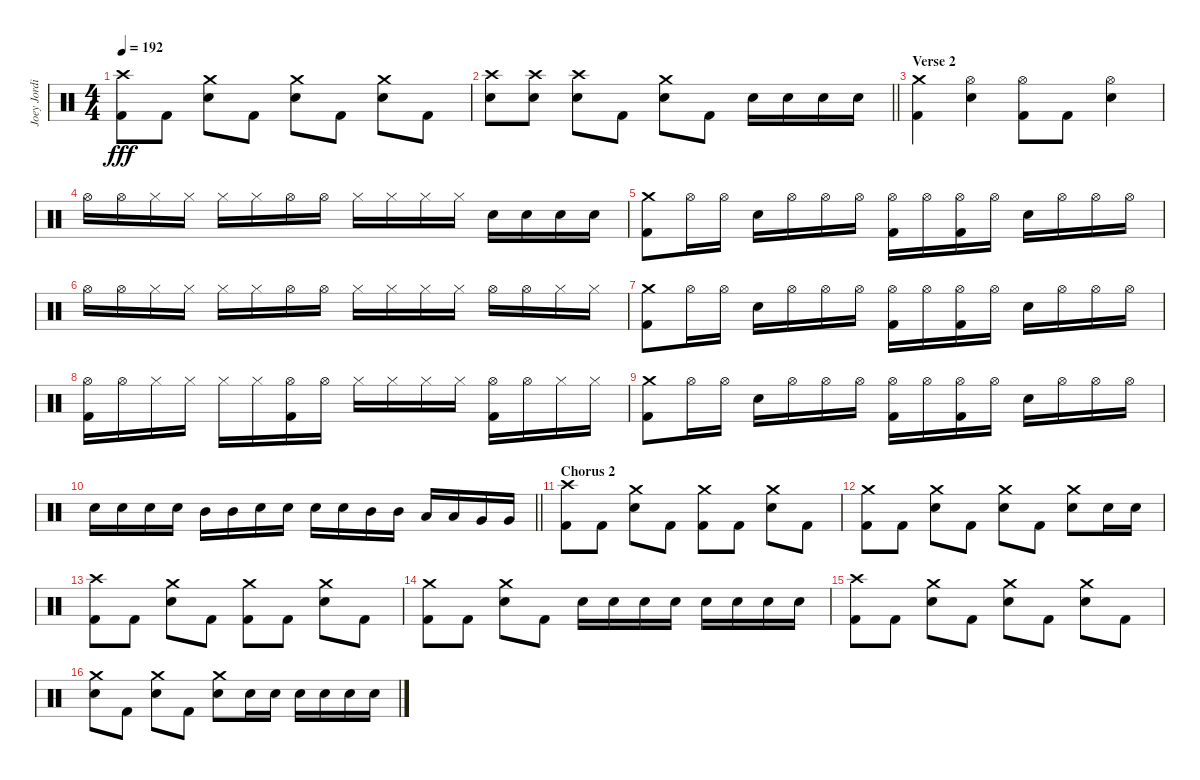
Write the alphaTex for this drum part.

\track ("Joey Jordison" "Joey Jordi") {instrument percussion}
\staff {score}
\articulation defaults
\ts (4 4)
\tempo 192
\clef neutral
\ks c
("Crash high (hit)" "Kick (hit) 2").8{dy fff} "Kick (hit) 2".8 ("Crash medium (hit)" "Electric Snare (hit)").8 "Kick (hit) 2".8 ("Crash medium (hit)" "Electric Snare (hit)").8 "Kick (hit) 2".8 ("Crash medium (hit)" "Electric Snare (hit)").8 "Kick (hit) 2".8 |
\barLineRight lightlight
("Crash high (hit)" "Electric Snare (hit)").8 ("Crash high (hit)" "Electric Snare (hit)").8 ("Crash high (hit)" "Electric Snare (hit)").8 "Kick (hit) 2".8 ("Crash medium (hit)" "Electric Snare (hit)").8 "Kick (hit) 2".8 "Electric Snare (hit)".16 "Electric Snare (hit)".16 "Electric Snare (hit)".16 "Electric Snare (hit)".16 |
\section ("" "Verse 2")
("Crash medium (hit)" "Kick (hit) 2").4 ("Hi-Hat (open)" "Electric Snare (hit)").4 ("Hi-Hat (open)" "Kick (hit) 2").8 "Kick (hit) 2".8 ("Hi-Hat (open)" "Electric Snare (hit)").4 |
"Hi-Hat (open)".16 "Hi-Hat (open)".16 "Hi-Hat (closed)".16 "Hi-Hat (closed)".16 "Hi-Hat (closed)".16 "Hi-Hat (closed)".16 "Hi-Hat (open)".16 "Hi-Hat (open)".16 "Hi-Hat (closed)".16 "Hi-Hat (closed)".16 "Hi-Hat (closed)".16 "Hi-Hat (closed)".16 "Electric Snare (hit)".16 "Electric Snare (hit)".16 "Electric Snare (hit)".16 "Electric Snare (hit)".16 |
("Crash medium (hit)" "Kick (hit) 2").8 "Hi-Hat (open)".16 "Hi-Hat (open)".16 "Electric Snare (hit)".16 "Hi-Hat (open)".16 "Hi-Hat (open)".16 "Hi-Hat (open)".16 ("Hi-Hat (open)" "Kick (hit) 2").16 "Hi-Hat (open)".16 ("Hi-Hat (open)" "Kick (hit) 2").16 "Hi-Hat (open)".16 "Electric Snare (hit)".16 "Hi-Hat (open)".16 "Hi-Hat (open)".16 "Hi-Hat (open)".16 |
"Hi-Hat (open)".16 "Hi-Hat (open)".16 "Hi-Hat (closed)".16 "Hi-Hat (closed)".16 "Hi-Hat (closed)".16 "Hi-Hat (closed)".16 "Hi-Hat (open)".16 "Hi-Hat (open)".16 "Hi-Hat (closed)".16 "Hi-Hat (closed)".16 "Hi-Hat (closed)".16 "Hi-Hat (closed)".16 "Hi-Hat (open)".16 "Hi-Hat (open)".16 "Hi-Hat (closed)".16 "Hi-Hat (closed)".16 |
("Crash medium (hit)" "Kick (hit) 2").8 "Hi-Hat (open)".16 "Hi-Hat (open)".16 "Electric Snare (hit)".16 "Hi-Hat (open)".16 "Hi-Hat (open)".16 "Hi-Hat (open)".16 ("Hi-Hat (open)" "Kick (hit) 2").16 "Hi-Hat (open)".16 ("Hi-Hat (open)" "Kick (hit) 2").16 "Hi-Hat (open)".16 "Electric Snare (hit)".16 "Hi-Hat (open)".16 "Hi-Hat (open)".16 "Hi-Hat (open)".16 |
("Hi-Hat (open)" "Kick (hit) 2").16 "Hi-Hat (open)".16 "Hi-Hat (closed)".16 "Hi-Hat (closed)".16 "Hi-Hat (closed)".16 "Hi-Hat (closed)".16 ("Hi-Hat (open)" "Kick (hit) 2").16 "Hi-Hat (open)".16 "Hi-Hat (closed)".16 "Hi-Hat (closed)".16 "Hi-Hat (closed)".16 "Hi-Hat (closed)".16 ("Hi-Hat (open)" "Kick (hit) 2").16 "Hi-Hat (open)".16 "Hi-Hat (closed)".16 "Hi-Hat (closed)".16 |
("Crash medium (hit)" "Kick (hit) 2").8 "Hi-Hat (open)".16 "Hi-Hat (open)".16 "Electric Snare (hit)".16 "Hi-Hat (open)".16 "Hi-Hat (open)".16 "Hi-Hat (open)".16 ("Hi-Hat (open)" "Kick (hit) 2").16 "Hi-Hat (open)".16 ("Hi-Hat (open)" "Kick (hit) 2").16 "Hi-Hat (open)".16 "Electric Snare (hit)".16 "Hi-Hat (open)".16 "Hi-Hat (open)".16 "Hi-Hat (open)".16 |
\barLineRight lightlight "Electric Snare (hit)".16 "Electric Snare (hit)".16 "Electric Snare (hit)".16 "Electric Snare (hit)".16 "Mid Tom (hit)".16 "Mid Tom (hit)".16 "Electric Snare (hit)".16 "Electric Snare (hit)".16 "Electric Snare (hit)".16 "Electric Snare (hit)".16 "Mid Tom (hit)".16 "Mid Tom (hit)".16 "Low Tom (hit)".16 "Low Tom (hit)".16 "Very Low Tom (hit)".16 "Very Low Tom (hit)".16
|
\section ("" "Chorus 2")
("Crash high (hit)" "Kick (hit) 2").8 "Kick (hit) 2".8 ("Crash medium (hit)" "Electric Snare (hit)").8 "Kick (hit) 2".8 ("Crash medium (hit)" "Kick (hit) 2").8 "Kick (hit) 2".8 ("Crash medium (hit)" "Electric Snare (hit)").8 "Kick (hit) 2".8 |
("Crash medium (hit)" "Kick (hit) 2").8 "Kick (hit) 2".8 ("Crash medium (hit)" "Electric Snare (hit)").8 "Kick (hit) 2".8 ("Crash medium (hit)" "Electric Snare (hit)").8 "Kick (hit) 2".8 ("Crash medium (hit)" "Electric Snare (hit)").8 "Electric Snare (hit)".16 "Electric Snare (hit)".16 |
("Crash high (hit)" "Kick (hit) 2").8 "Kick (hit) 2".8 ("Crash medium (hit)" "Electric Snare (hit)").8 "Kick (hit) 2".8 ("Crash medium (hit)" "Kick (hit) 2").8 "Kick (hit) 2".8 ("Crash medium (hit)" "Electric Snare (hit)").8 "Kick (hit) 2".8 |
("Crash medium (hit)" "Kick (hit) 2").8 "Kick (hit) 2".8 ("Crash medium (hit)" "Electric Snare (hit)").8 "Kick (hit) 2".8 "Electric Snare (hit)".16 "Electric Snare (hit)".16 "Electric Snare (hit)".16 "Electric Snare (hit)".16 "Electric Snare (hit)".16 "Electric Snare (hit)".16 "Electric Snare (hit)".16 "Electric Snare (hit)".16 |
("Crash high (hit)" "Kick (hit) 2").8 "Kick (hit) 2".8 ("Crash medium (hit)" "Electric Snare (hit)").8 "Kick (hit) 2".8 ("Crash medium (hit)" "Electric Snare (hit)").8 "Kick (hit) 2".8 ("Crash medium (hit)" "Electric Snare (hit)").8 "Kick (hit) 2".8 |
("Crash medium (hit)" "Electric Snare (hit)").8 "Kick (hit) 2".8 ("Crash medium (hit)" "Electric Snare (hit)").8 "Kick (hit) 2".8 ("Crash medium (hit)" "Electric Snare (hit)").8 "Electric Snare (hit)".16 "Electric Snare (hit)".16 "Electric Snare (hit)".16 "Electric Snare (hit)".16 "Electric Snare (hit)".16 "Electric Snare (hit)".16
